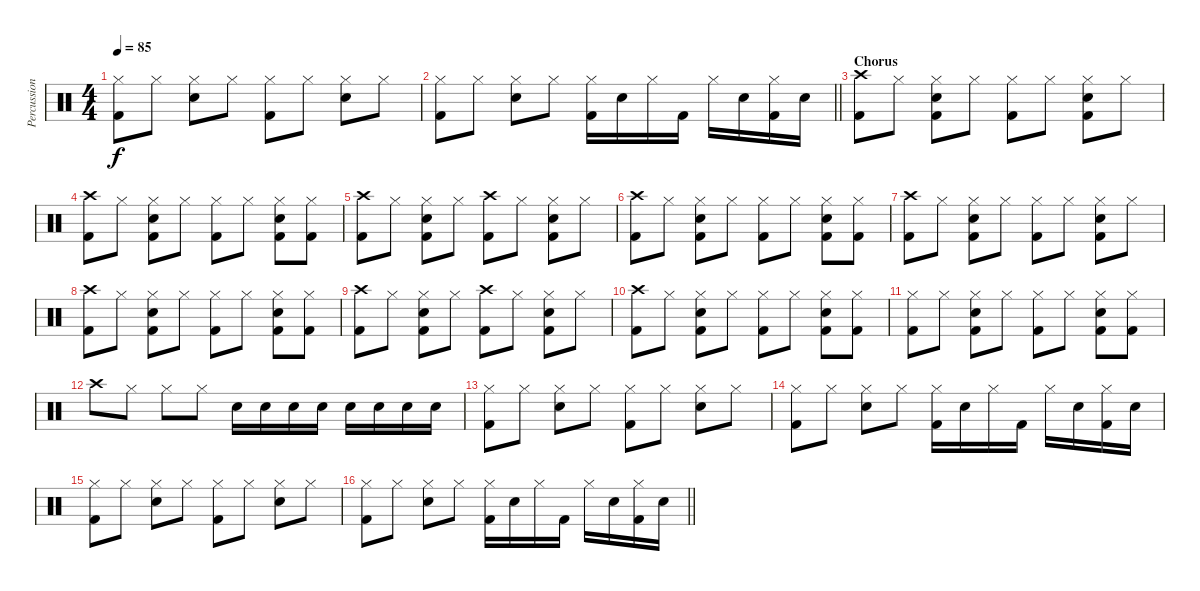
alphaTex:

\track ("Percussion" "Percussion") {instrument percussion}
\staff {score}
\articulation defaults
\ts (4 4)
\tempo 85
\clef neutral
\ks c
("Hi-Hat (closed)" "Kick (hit) 2").8{dy f} "Hi-Hat (closed)".8 ("Hi-Hat (closed)" "Electric Snare (hit)").8 "Hi-Hat (closed)".8 ("Hi-Hat (closed)" "Kick (hit) 2").8 "Hi-Hat (closed)".8 ("Hi-Hat (closed)" "Electric Snare (hit)").8 "Hi-Hat (closed)".8 |
\barLineRight lightlight
("Hi-Hat (closed)" "Kick (hit) 2").8 "Hi-Hat (closed)".8 ("Hi-Hat (closed)" "Electric Snare (hit)").8 "Hi-Hat (closed)".8 ("Hi-Hat (closed)" "Kick (hit) 2").16 "Electric Snare (hit)".16 "Hi-Hat (closed)".16 "Kick (hit) 2".16 "Hi-Hat (closed)".16 "Electric Snare (hit)".16 ("Hi-Hat (closed)" "Kick (hit) 2").16 "Electric Snare (hit)".16 |
\section ("" "Chorus")
("Crash high (hit)" "Kick (hit) 2").8 "Hi-Hat (closed)".8 ("Hi-Hat (closed)" "Electric Snare (hit)" "Kick (hit) 2").8 "Hi-Hat (closed)".8 ("Hi-Hat (closed)" "Kick (hit) 2").8 "Hi-Hat (closed)".8 ("Hi-Hat (closed)" "Electric Snare (hit)" "Kick (hit) 2").8 "Hi-Hat (closed)".8 |
("Crash high (hit)" "Kick (hit) 2").8 "Hi-Hat (closed)".8 ("Hi-Hat (closed)" "Electric Snare (hit)" "Kick (hit) 2").8 "Hi-Hat (closed)".8 ("Hi-Hat (closed)" "Kick (hit) 2").8 "Hi-Hat (closed)".8 ("Hi-Hat (closed)" "Electric Snare (hit)" "Kick (hit) 2").8 ("Hi-Hat (closed)" "Kick (hit) 2").8 |
("Crash high (hit)" "Kick (hit) 2").8 "Hi-Hat (closed)".8 ("Hi-Hat (closed)" "Electric Snare (hit)" "Kick (hit) 2").8 "Hi-Hat (closed)".8 ("Crash high (hit)" "Kick (hit) 2").8 "Hi-Hat (closed)".8 ("Hi-Hat (closed)" "Electric Snare (hit)" "Kick (hit) 2").8 "Hi-Hat (closed)".8 |
("Crash high (hit)" "Kick (hit) 2").8 "Hi-Hat (closed)".8 ("Hi-Hat (closed)" "Electric Snare (hit)" "Kick (hit) 2").8 "Hi-Hat (closed)".8 ("Hi-Hat (closed)" "Kick (hit) 2").8 "Hi-Hat (closed)".8 ("Hi-Hat (closed)" "Electric Snare (hit)" "Kick (hit) 2").8 ("Hi-Hat (closed)" "Kick (hit) 2").8 |
("Crash high (hit)" "Kick (hit) 2").8 "Hi-Hat (closed)".8 ("Hi-Hat (closed)" "Electric Snare (hit)" "Kick (hit) 2").8 "Hi-Hat (closed)".8 ("Hi-Hat (closed)" "Kick (hit) 2").8 "Hi-Hat (closed)".8 ("Hi-Hat (closed)" "Electric Snare (hit)" "Kick (hit) 2").8 "Hi-Hat (closed)".8 |
("Crash high (hit)" "Kick (hit) 2").8 "Hi-Hat (closed)".8 ("Hi-Hat (closed)" "Electric Snare (hit)" "Kick (hit) 2").8 "Hi-Hat (closed)".8 ("Hi-Hat (closed)" "Kick (hit) 2").8 "Hi-Hat (closed)".8 ("Hi-Hat (closed)" "Electric Snare (hit)" "Kick (hit) 2").8 ("Hi-Hat (closed)" "Kick (hit) 2").8 |
("Crash high (hit)" "Kick (hit) 2").8 "Hi-Hat (closed)".8 ("Hi-Hat (closed)" "Electric Snare (hit)" "Kick (hit) 2").8 "Hi-Hat (closed)".8 ("Crash high (hit)" "Kick (hit) 2").8 "Hi-Hat (closed)".8 ("Hi-Hat (closed)" "Electric Snare (hit)" "Kick (hit) 2").8 "Hi-Hat (closed)".8 |
("Crash high (hit)" "Kick (hit) 2").8 "Hi-Hat (closed)".8 ("Hi-Hat (closed)" "Electric Snare (hit)" "Kick (hit) 2").8 "Hi-Hat (closed)".8 ("Hi-Hat (closed)" "Kick (hit) 2").8 "Hi-Hat (closed)".8 ("Hi-Hat (closed)" "Electric Snare (hit)" "Kick (hit) 2").8 ("Hi-Hat (closed)" "Kick (hit) 2").8 |
("Hi-Hat (closed)" "Kick (hit) 2").8 "Hi-Hat (closed)".8 ("Hi-Hat (closed)" "Electric Snare (hit)" "Kick (hit) 2").8 "Hi-Hat (closed)".8 ("Hi-Hat (closed)" "Kick (hit) 2").8 "Hi-Hat (closed)".8 ("Hi-Hat (closed)" "Electric Snare (hit)" "Kick (hit) 2").8 ("Hi-Hat (closed)" "Kick (hit) 2").8 |
"Crash high (hit)".8 "Hi-Hat (closed)".8 "Hi-Hat (closed)".8 "Hi-Hat (closed)".8 "Electric Snare (hit)".16 "Electric Snare (hit)".16 "Electric Snare (hit)".16 "Electric Snare (hit)".16 "Electric Snare (hit)".16 "Electric Snare (hit)".16 "Electric Snare (hit)".16 "Electric Snare (hit)".16 |
("Hi-Hat (closed)" "Kick (hit) 2").8 "Hi-Hat (closed)".8 ("Hi-Hat (closed)" "Electric Snare (hit)").8 "Hi-Hat (closed)".8 ("Hi-Hat (closed)" "Kick (hit) 2").8 "Hi-Hat (closed)".8 ("Hi-Hat (closed)" "Electric Snare (hit)").8 "Hi-Hat (closed)".8 |
("Hi-Hat (closed)" "Kick (hit) 2").8 "Hi-Hat (closed)".8 ("Hi-Hat (closed)" "Electric Snare (hit)").8 "Hi-Hat (closed)".8 ("Hi-Hat (closed)" "Kick (hit) 2").16 "Electric Snare (hit)".16 "Hi-Hat (closed)".16 "Kick (hit) 2".16 "Hi-Hat (closed)".16 "Electric Snare (hit)".16 ("Hi-Hat (closed)" "Kick (hit) 2").16 "Electric Snare (hit)".16 |
("Hi-Hat (closed)" "Kick (hit) 2").8 "Hi-Hat (closed)".8 ("Hi-Hat (closed)" "Electric Snare (hit)").8 "Hi-Hat (closed)".8 ("Hi-Hat (closed)" "Kick (hit) 2").8 "Hi-Hat (closed)".8 ("Hi-Hat (closed)" "Electric Snare (hit)").8 "Hi-Hat (closed)".8 |
\barLineRight lightlight
("Hi-Hat (closed)" "Kick (hit) 2").8 "Hi-Hat (closed)".8 ("Hi-Hat (closed)" "Electric Snare (hit)").8 "Hi-Hat (closed)".8 ("Hi-Hat (closed)" "Kick (hit) 2").16 "Electric Snare (hit)".16 "Hi-Hat (closed)".16 "Kick (hit) 2".16 "Hi-Hat (closed)".16 "Electric Snare (hit)".16 ("Hi-Hat (closed)" "Kick (hit) 2").16 "Electric Snare (hit)".16
